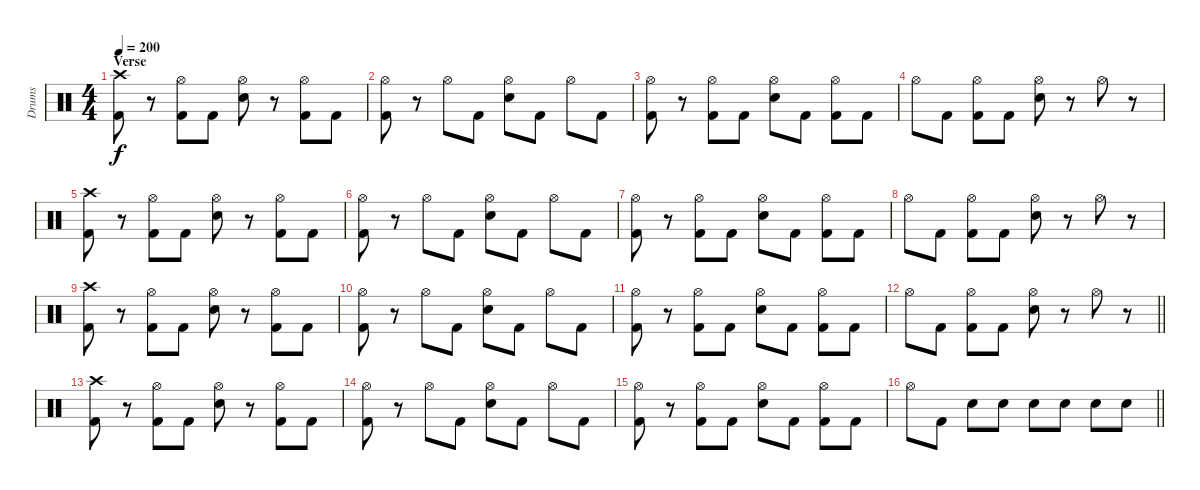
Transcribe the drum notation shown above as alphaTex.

\track ("Drums" "Drums") {instrument percussion}
\staff {score}
\articulation defaults
\ts (4 4)
\section ("" "Verse")
\tempo 200
\clef neutral
\ks c
("Crash high (hit)" "Kick (hit) 2").8{dy f} r.8 ("Hi-Hat (open)" "Kick (hit) 2").8 "Kick (hit) 2".8 ("Hi-Hat (open)" "Electric Snare (hit)").8 r.8 ("Hi-Hat (open)" "Kick (hit) 2").8 "Kick (hit) 2".8 |
("Hi-Hat (open)" "Kick (hit) 2").8 r.8 "Hi-Hat (open)".8 "Kick (hit) 2".8 ("Hi-Hat (open)" "Electric Snare (hit)").8 "Kick (hit) 2".8 "Hi-Hat (open)".8 "Kick (hit) 2".8 |
("Hi-Hat (open)" "Kick (hit) 2").8 r.8 ("Hi-Hat (open)" "Kick (hit) 2").8 "Kick (hit) 2".8 ("Hi-Hat (open)" "Electric Snare (hit)").8 "Kick (hit) 2".8 ("Hi-Hat (open)" "Kick (hit) 2").8 "Kick (hit) 2".8 |
"Hi-Hat (open)".8 "Kick (hit) 2".8 ("Hi-Hat (open)" "Kick (hit) 2").8 "Kick (hit) 2".8 ("Hi-Hat (open)" "Electric Snare (hit)").8 r.8 "Hi-Hat (open)".8 r.8 |
("Crash high (hit)" "Kick (hit) 2").8 r.8 ("Hi-Hat (open)" "Kick (hit) 2").8 "Kick (hit) 2".8 ("Hi-Hat (open)" "Electric Snare (hit)").8 r.8 ("Hi-Hat (open)" "Kick (hit) 2").8 "Kick (hit) 2".8 |
("Hi-Hat (open)" "Kick (hit) 2").8 r.8 "Hi-Hat (open)".8 "Kick (hit) 2".8 ("Hi-Hat (open)" "Electric Snare (hit)").8 "Kick (hit) 2".8 "Hi-Hat (open)".8 "Kick (hit) 2".8 |
("Hi-Hat (open)" "Kick (hit) 2").8 r.8 ("Hi-Hat (open)" "Kick (hit) 2").8 "Kick (hit) 2".8 ("Hi-Hat (open)" "Electric Snare (hit)").8 "Kick (hit) 2".8 ("Hi-Hat (open)" "Kick (hit) 2").8 "Kick (hit) 2".8 |
"Hi-Hat (open)".8 "Kick (hit) 2".8 ("Hi-Hat (open)" "Kick (hit) 2").8 "Kick (hit) 2".8 ("Hi-Hat (open)" "Electric Snare (hit)").8 r.8 "Hi-Hat (open)".8 r.8 |
("Crash high (hit)" "Kick (hit) 2").8 r.8 ("Hi-Hat (open)" "Kick (hit) 2").8 "Kick (hit) 2".8 ("Hi-Hat (open)" "Electric Snare (hit)").8 r.8 ("Hi-Hat (open)" "Kick (hit) 2").8 "Kick (hit) 2".8 |
("Hi-Hat (open)" "Kick (hit) 2").8 r.8 "Hi-Hat (open)".8 "Kick (hit) 2".8 ("Hi-Hat (open)" "Electric Snare (hit)").8 "Kick (hit) 2".8 "Hi-Hat (open)".8 "Kick (hit) 2".8 |
("Hi-Hat (open)" "Kick (hit) 2").8 r.8 ("Hi-Hat (open)" "Kick (hit) 2").8 "Kick (hit) 2".8 ("Hi-Hat (open)" "Electric Snare (hit)").8 "Kick (hit) 2".8 ("Hi-Hat (open)" "Kick (hit) 2").8 "Kick (hit) 2".8 |
\barLineRight lightlight "Hi-Hat (open)".8 "Kick (hit) 2".8
("Hi-Hat (open)" "Kick (hit) 2").8 "Kick (hit) 2".8 ("Hi-Hat (open)" "Electric Snare (hit)").8 r.8 "Hi-Hat (open)".8 r.8 |
("Crash high (hit)" "Kick (hit) 2").8 r.8 ("Hi-Hat (open)" "Kick (hit) 2").8 "Kick (hit) 2".8 ("Hi-Hat (open)" "Electric Snare (hit)").8 r.8 ("Hi-Hat (open)" "Kick (hit) 2").8 "Kick (hit) 2".8 |
("Hi-Hat (open)" "Kick (hit) 2").8 r.8 "Hi-Hat (open)".8 "Kick (hit) 2".8 ("Hi-Hat (open)" "Electric Snare (hit)").8 "Kick (hit) 2".8 "Hi-Hat (open)".8 "Kick (hit) 2".8 |
("Hi-Hat (open)" "Kick (hit) 2").8 r.8 ("Hi-Hat (open)" "Kick (hit) 2").8 "Kick (hit) 2".8 ("Hi-Hat (open)" "Electric Snare (hit)").8 "Kick (hit) 2".8 ("Hi-Hat (open)" "Kick (hit) 2").8 "Kick (hit) 2".8 |
\barLineRight lightlight "Hi-Hat (open)".8 "Kick (hit) 2".8 "Electric Snare (hit)".8 "Electric Snare (hit)".8 "Electric Snare (hit)".8 "Electric Snare (hit)".8 "Electric Snare (hit)".8 "Electric Snare (hit)".8
